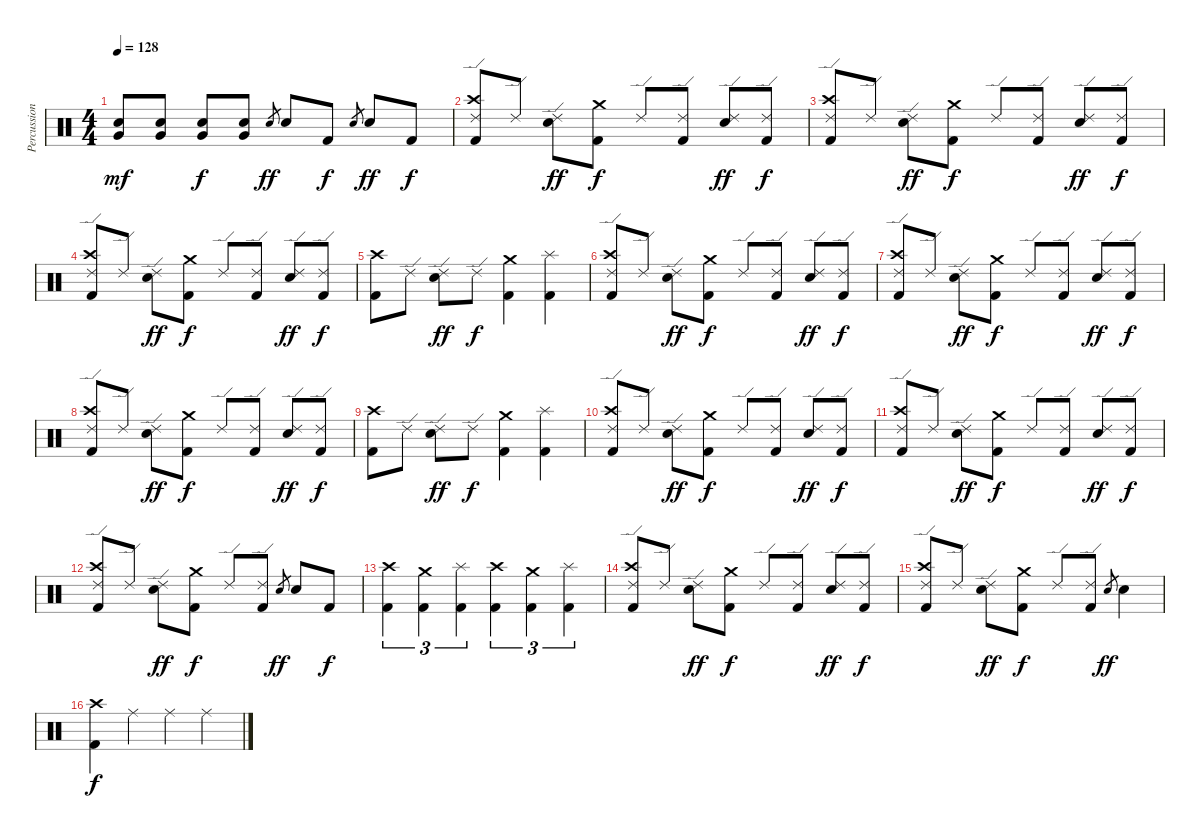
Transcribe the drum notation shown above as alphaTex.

\track ("Percussion" "Percussion") {instrument percussion}
\staff {score}
\articulation defaults
\ts (4 4)
\tempo 128
\clef neutral
\ks c
("Very Low Tom (hit)" "Snare (hit) 2").8{dy mf} ("Very Low Tom (hit)" "Snare (hit) 2").8 ("Very Low Tom (hit)" "Snare (hit) 2").8{dy f} ("Very Low Tom (hit)" "Snare (hit) 2").8 "Snare (hit) 2".8{gr dy ff} "Snare (hit) 2".8 "Kick (hit) 2".8{dy f} "Snare (hit) 2".8{gr} "Snare (hit) 2".8{dy ff} "Kick (hit) 2".8{dy f} |
("Crash high (hit)" "Ride (edge) 2" "Kick (hit) 2").8 "Ride (edge) 2".8 ("Ride (edge) 2" "Snare (hit) 2").8{dy ff} ("Crash medium (hit)" "Kick (hit) 2").8{dy f} "Ride (edge) 2".8 ("Ride (edge) 2" "Kick (hit) 2").8 ("Ride (edge) 2" "Snare (hit) 2").8{dy ff} ("Ride (edge) 2" "Kick (hit) 2").8{dy f} |
("Crash high (hit)" "Ride (edge) 2" "Kick (hit) 2").8 "Ride (edge) 2".8 ("Ride (edge) 2" "Snare (hit) 2").8{dy ff} ("Crash medium (hit)" "Kick (hit) 2").8{dy f} "Ride (edge) 2".8 ("Ride (edge) 2" "Kick (hit) 2").8 ("Ride (edge) 2" "Snare (hit) 2").8{dy ff} ("Ride (edge) 2" "Kick (hit) 2").8{dy f} |
("Crash high (hit)" "Ride (edge) 2" "Kick (hit) 2").8 "Ride (edge) 2".8 ("Ride (edge) 2" "Snare (hit) 2").8{dy ff} ("Crash medium (hit)" "Kick (hit) 2").8{dy f} "Ride (edge) 2".8 ("Ride (edge) 2" "Kick (hit) 2").8 ("Ride (edge) 2" "Snare (hit) 2").8{dy ff} ("Ride (edge) 2" "Kick (hit) 2").8{dy f} |
("Crash high (hit)" "Kick (hit) 2").8 "Ride (edge) 2".8 ("Ride (edge) 2" "Snare (hit) 2").8{dy ff} "Ride (edge) 2".8{dy f} ("Crash medium (hit)" "Kick (hit) 2").4 ("Splash (hit)" "Kick (hit) 2").4 |
("Crash high (hit)" "Ride (edge) 2" "Kick (hit) 2").8 "Ride (edge) 2".8 ("Ride (edge) 2" "Snare (hit) 2").8{dy ff} ("Crash medium (hit)" "Kick (hit) 2").8{dy f} "Ride (edge) 2".8 ("Ride (edge) 2" "Kick (hit) 2").8 ("Ride (edge) 2" "Snare (hit) 2").8{dy ff} ("Ride (edge) 2" "Kick (hit) 2").8{dy f} |
("Crash high (hit)" "Ride (edge) 2" "Kick (hit) 2").8 "Ride (edge) 2".8 ("Ride (edge) 2" "Snare (hit) 2").8{dy ff} ("Crash medium (hit)" "Kick (hit) 2").8{dy f} "Ride (edge) 2".8 ("Ride (edge) 2" "Kick (hit) 2").8 ("Ride (edge) 2" "Snare (hit) 2").8{dy ff} ("Ride (edge) 2" "Kick (hit) 2").8{dy f} |
("Crash high (hit)" "Ride (edge) 2" "Kick (hit) 2").8 "Ride (edge) 2".8 ("Ride (edge) 2" "Snare (hit) 2").8{dy ff} ("Crash medium (hit)" "Kick (hit) 2").8{dy f} "Ride (edge) 2".8 ("Ride (edge) 2" "Kick (hit) 2").8 ("Ride (edge) 2" "Snare (hit) 2").8{dy ff} ("Ride (edge) 2" "Kick (hit) 2").8{dy f} |
("Crash high (hit)" "Kick (hit) 2").8 "Ride (edge) 2".8 ("Ride (edge) 2" "Snare (hit) 2").8{dy ff} "Ride (edge) 2".8{dy f} ("Crash medium (hit)" "Kick (hit) 2").4 ("Splash (hit)" "Kick (hit) 2").4 |
("Crash high (hit)" "Ride (edge) 2" "Kick (hit) 2").8 "Ride (edge) 2".8 ("Ride (edge) 2" "Snare (hit) 2").8{dy ff} ("Crash medium (hit)" "Kick (hit) 2").8{dy f} "Ride (edge) 2".8 ("Ride (edge) 2" "Kick (hit) 2").8 ("Ride (edge) 2" "Snare (hit) 2").8{dy ff} ("Ride (edge) 2" "Kick (hit) 2").8{dy f} |
("Crash high (hit)" "Ride (edge) 2" "Kick (hit) 2").8 "Ride (edge) 2".8 ("Ride (edge) 2" "Snare (hit) 2").8{dy ff} ("Crash medium (hit)" "Kick (hit) 2").8{dy f} "Ride (edge) 2".8 ("Ride (edge) 2" "Kick (hit) 2").8 ("Ride (edge) 2" "Snare (hit) 2").8{dy ff} ("Ride (edge) 2" "Kick (hit) 2").8{dy f} |
("Crash high (hit)" "Ride (edge) 2" "Kick (hit) 2").8 "Ride (edge) 2".8 ("Ride (edge) 2" "Snare (hit) 2").8{dy ff} ("Crash medium (hit)" "Kick (hit) 2").8{dy f} "Ride (edge) 2".8 ("Ride (edge) 2" "Kick (hit) 2").8 "Snare (hit) 2".8{gr dy ff} "Snare (hit) 2".8 "Kick (hit) 2".8{dy f} |
("Crash high (hit)" "Kick (hit) 2").4{tu (3 2)} ("Crash medium (hit)" "Kick (hit) 2").4{tu (3 2)} ("Splash (hit)" "Kick (hit) 2").4{tu (3 2)} ("Crash high (hit)" "Kick (hit) 2").4{tu (3 2)} ("Crash medium (hit)" "Kick (hit) 2").4{tu (3 2)} ("Splash (hit)" "Kick (hit) 2").4{tu (3 2)} |
("Crash high (hit)" "Ride (edge) 2" "Kick (hit) 2").8 "Ride (edge) 2".8 ("Ride (edge) 2" "Snare (hit) 2").8{dy ff} ("Crash medium (hit)" "Kick (hit) 2").8{dy f} "Ride (edge) 2".8 ("Ride (edge) 2" "Kick (hit) 2").8 ("Ride (edge) 2" "Snare (hit) 2").8{dy ff} ("Ride (edge) 2" "Kick (hit) 2").8{dy f} |
("Crash high (hit)" "Ride (edge) 2" "Kick (hit) 2").8 "Ride (edge) 2".8 ("Ride (edge) 2" "Snare (hit) 2").8{dy ff} ("Crash medium (hit)" "Kick (hit) 2").8{dy f} "Ride (edge) 2".8 ("Ride (edge) 2" "Kick (hit) 2").8 "Snare (hit) 2".8{gr dy ff} "Snare (hit) 2".4 |
("Crash high (hit)" "Kick (hit) 2").4{dy f} "Ride (middle)".4 "Ride (middle)".4 "Ride (middle)".4
